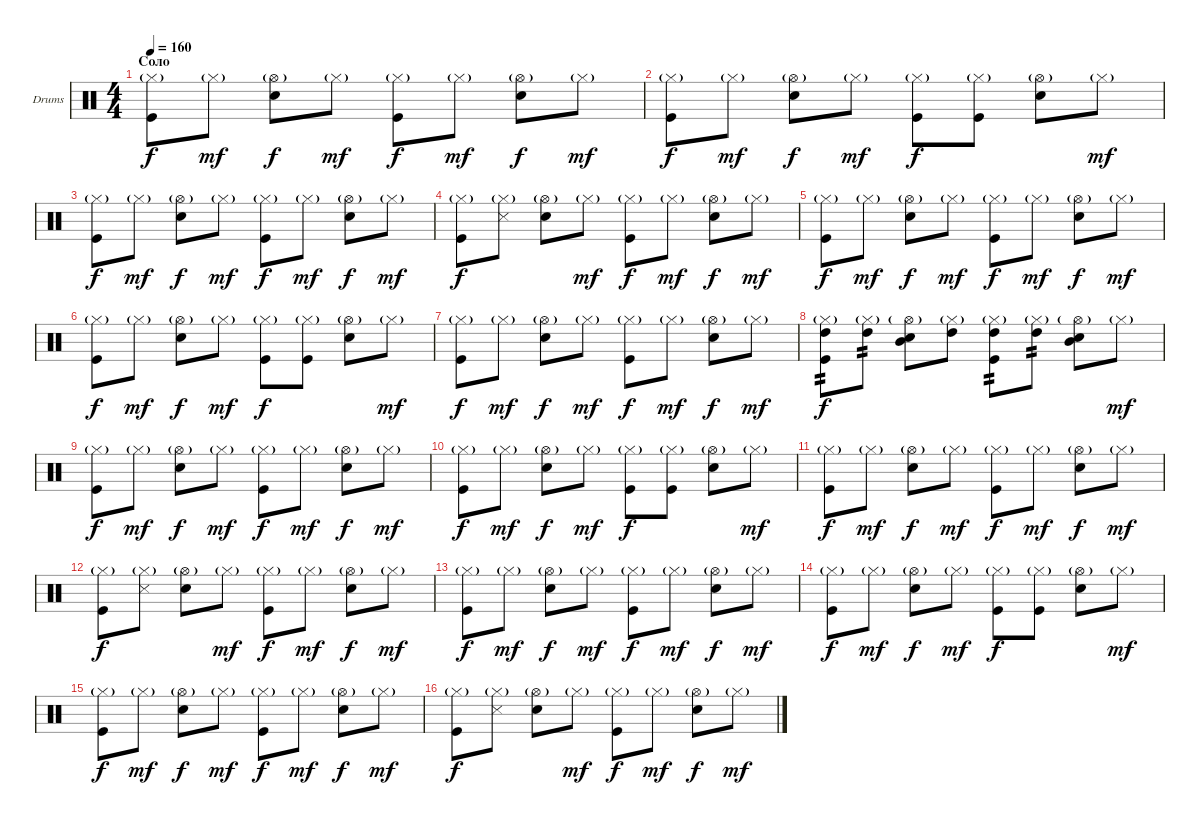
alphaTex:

\bracketExtendMode groupsimilarinstruments
\firstSystemTrackNameOrientation horizontal
\otherSystemsTrackNameOrientation horizontal
\track ("Ударные" "Drums") {instrument percussion}
\staff {score}
\articulation defaults
\ts (4 4)
\section ("" "Соло")
\tempo 160
\clef neutral
\ks c
("Hi-Hat (closed)"{g} "Kick (hit)").8{dy f} "Hi-Hat (closed)"{g}.8{dy mf} ("Hi-Hat (open)"{g} "Snare (hit) 2").8{dy f} "Hi-Hat (closed)"{g}.8{dy mf} ("Hi-Hat (closed)"{g} "Kick (hit)").8{dy f} "Hi-Hat (closed)"{g}.8{dy mf} ("Hi-Hat (open)"{g} "Snare (hit) 2").8{dy f} "Hi-Hat (closed)"{g}.8{dy mf} |
("Hi-Hat (closed)"{g} "Kick (hit)").8{dy f} "Hi-Hat (closed)"{g}.8{dy mf} ("Hi-Hat (open)"{g} "Snare (hit) 2").8{dy f} "Hi-Hat (closed)"{g}.8{dy mf} ("Hi-Hat (closed)"{g} "Kick (hit)").8{dy f} ("Hi-Hat (closed)"{g} "Kick (hit)").8 ("Hi-Hat (open)"{g} "Snare (hit) 2").8 "Hi-Hat (closed)"{g}.8{dy mf} |
("Hi-Hat (closed)"{g} "Kick (hit)").8{dy f} "Hi-Hat (closed)"{g}.8{dy mf} ("Hi-Hat (open)"{g} "Snare (hit) 2").8{dy f} "Hi-Hat (closed)"{g}.8{dy mf} ("Hi-Hat (closed)"{g} "Kick (hit)").8{dy f} "Hi-Hat (closed)"{g}.8{dy mf} ("Hi-Hat (open)"{g} "Snare (hit) 2").8{dy f} "Hi-Hat (closed)"{g}.8{dy mf} |
("Hi-Hat (closed)"{g} "Kick (hit)").8{dy f} ("Hi-Hat (closed)"{g} "Snare (side stick) 3").8 ("Hi-Hat (open)"{g} "Snare (hit) 2").8 "Hi-Hat (closed)"{g}.8{dy mf} ("Hi-Hat (closed)"{g} "Kick (hit)").8{dy f} "Hi-Hat (closed)"{g}.8{dy mf} ("Hi-Hat (open)"{g} "Snare (hit) 2").8{dy f} "Hi-Hat (closed)"{g}.8{dy mf} |
("Hi-Hat (closed)"{g} "Kick (hit)").8{dy f} "Hi-Hat (closed)"{g}.8{dy mf} ("Hi-Hat (open)"{g} "Snare (hit) 2").8{dy f} "Hi-Hat (closed)"{g}.8{dy mf} ("Hi-Hat (closed)"{g} "Kick (hit)").8{dy f} "Hi-Hat (closed)"{g}.8{dy mf} ("Hi-Hat (open)"{g} "Snare (hit) 2").8{dy f} "Hi-Hat (closed)"{g}.8{dy mf} |
("Hi-Hat (closed)"{g} "Kick (hit)").8{dy f} "Hi-Hat (closed)"{g}.8{dy mf} ("Hi-Hat (open)"{g} "Snare (hit) 2").8{dy f} "Hi-Hat (closed)"{g}.8{dy mf} ("Hi-Hat (closed)"{g} "Kick (hit)").8{dy f} ("Hi-Hat (closed)"{g} "Kick (hit)").8 ("Hi-Hat (open)"{g} "Snare (hit) 2").8 "Hi-Hat (closed)"{g}.8{dy mf} |
("Hi-Hat (closed)"{g} "Kick (hit)").8{dy f} "Hi-Hat (closed)"{g}.8{dy mf} ("Hi-Hat (open)"{g} "Snare (hit) 2").8{dy f} "Hi-Hat (closed)"{g}.8{dy mf} ("Hi-Hat (closed)"{g} "Kick (hit)").8{dy f} "Hi-Hat (closed)"{g}.8{dy mf} ("Hi-Hat (open)"{g} "Snare (hit) 2").8{dy f} "Hi-Hat (closed)"{g}.8{dy mf} |
("Hi-Hat (closed)"{g} "High Tom (hit)" "Kick (hit)").8{tp 2 dy f} ("Hi-Hat (closed)"{g} "High Tom (hit)").8{tp 2} ("Hi-Hat (open)"{g} "Mid Tom (hit)" "Snare (hit) 2").8 ("Hi-Hat (closed)"{g} "High Tom (hit)").8 ("Hi-Hat (closed)"{g} "High Tom (hit)" "Kick (hit)").8{tp 2} ("Hi-Hat (closed)"{g} "High Tom (hit)").8{tp 2} ("Hi-Hat (open)"{g} "Mid Tom (hit)" "Snare (hit) 2").8 "Hi-Hat (closed)"{g}.8{dy mf} |
("Hi-Hat (closed)"{g} "Kick (hit)").8{dy f} "Hi-Hat (closed)"{g}.8{dy mf} ("Hi-Hat (open)"{g} "Snare (hit) 2").8{dy f} "Hi-Hat (closed)"{g}.8{dy mf} ("Hi-Hat (closed)"{g} "Kick (hit)").8{dy f} "Hi-Hat (closed)"{g}.8{dy mf} ("Hi-Hat (open)"{g} "Snare (hit) 2").8{dy f} "Hi-Hat (closed)"{g}.8{dy mf} |
("Hi-Hat (closed)"{g} "Kick (hit)").8{dy f} "Hi-Hat (closed)"{g}.8{dy mf} ("Hi-Hat (open)"{g} "Snare (hit) 2").8{dy f} "Hi-Hat (closed)"{g}.8{dy mf} ("Hi-Hat (closed)"{g} "Kick (hit)").8{dy f} ("Hi-Hat (closed)"{g} "Kick (hit)").8 ("Hi-Hat (open)"{g} "Snare (hit) 2").8 "Hi-Hat (closed)"{g}.8{dy mf} |
("Hi-Hat (closed)"{g} "Kick (hit)").8{dy f} "Hi-Hat (closed)"{g}.8{dy mf} ("Hi-Hat (open)"{g} "Snare (hit) 2").8{dy f} "Hi-Hat (closed)"{g}.8{dy mf} ("Hi-Hat (closed)"{g} "Kick (hit)").8{dy f} "Hi-Hat (closed)"{g}.8{dy mf} ("Hi-Hat (open)"{g} "Snare (hit) 2").8{dy f} "Hi-Hat (closed)"{g}.8{dy mf} |
("Hi-Hat (closed)"{g} "Kick (hit)").8{dy f} ("Hi-Hat (closed)"{g} "Snare (side stick) 3").8 ("Hi-Hat (open)"{g} "Snare (hit) 2").8 "Hi-Hat (closed)"{g}.8{dy mf} ("Hi-Hat (closed)"{g} "Kick (hit)").8{dy f} "Hi-Hat (closed)"{g}.8{dy mf} ("Hi-Hat (open)"{g} "Snare (hit) 2").8{dy f} "Hi-Hat (closed)"{g}.8{dy mf} |
("Hi-Hat (closed)"{g} "Kick (hit)").8{dy f} "Hi-Hat (closed)"{g}.8{dy mf} ("Hi-Hat (open)"{g} "Snare (hit) 2").8{dy f} "Hi-Hat (closed)"{g}.8{dy mf} ("Hi-Hat (closed)"{g} "Kick (hit)").8{dy f} "Hi-Hat (closed)"{g}.8{dy mf} ("Hi-Hat (open)"{g} "Snare (hit) 2").8{dy f} "Hi-Hat (closed)"{g}.8{dy mf} |
("Hi-Hat (closed)"{g} "Kick (hit)").8{dy f} "Hi-Hat (closed)"{g}.8{dy mf} ("Hi-Hat (open)"{g} "Snare (hit) 2").8{dy f} "Hi-Hat (closed)"{g}.8{dy mf} ("Hi-Hat (closed)"{g} "Kick (hit)").8{dy f} ("Hi-Hat (closed)"{g} "Kick (hit)").8 ("Hi-Hat (open)"{g} "Snare (hit) 2").8 "Hi-Hat (closed)"{g}.8{dy mf} |
("Hi-Hat (closed)"{g} "Kick (hit)").8{dy f} "Hi-Hat (closed)"{g}.8{dy mf} ("Hi-Hat (open)"{g} "Snare (hit) 2").8{dy f} "Hi-Hat (closed)"{g}.8{dy mf} ("Hi-Hat (closed)"{g} "Kick (hit)").8{dy f} "Hi-Hat (closed)"{g}.8{dy mf} ("Hi-Hat (open)"{g} "Snare (hit) 2").8{dy f} "Hi-Hat (closed)"{g}.8{dy mf} |
("Hi-Hat (closed)"{g} "Kick (hit)").8{dy f} ("Hi-Hat (closed)"{g} "Snare (side stick) 3").8 ("Hi-Hat (open)"{g} "Snare (hit) 2").8 "Hi-Hat (closed)"{g}.8{dy mf} ("Hi-Hat (closed)"{g} "Kick (hit)").8{dy f} "Hi-Hat (closed)"{g}.8{dy mf} ("Hi-Hat (open)"{g} "Snare (hit) 2").8{dy f} "Hi-Hat (closed)"{g}.8{dy mf}
